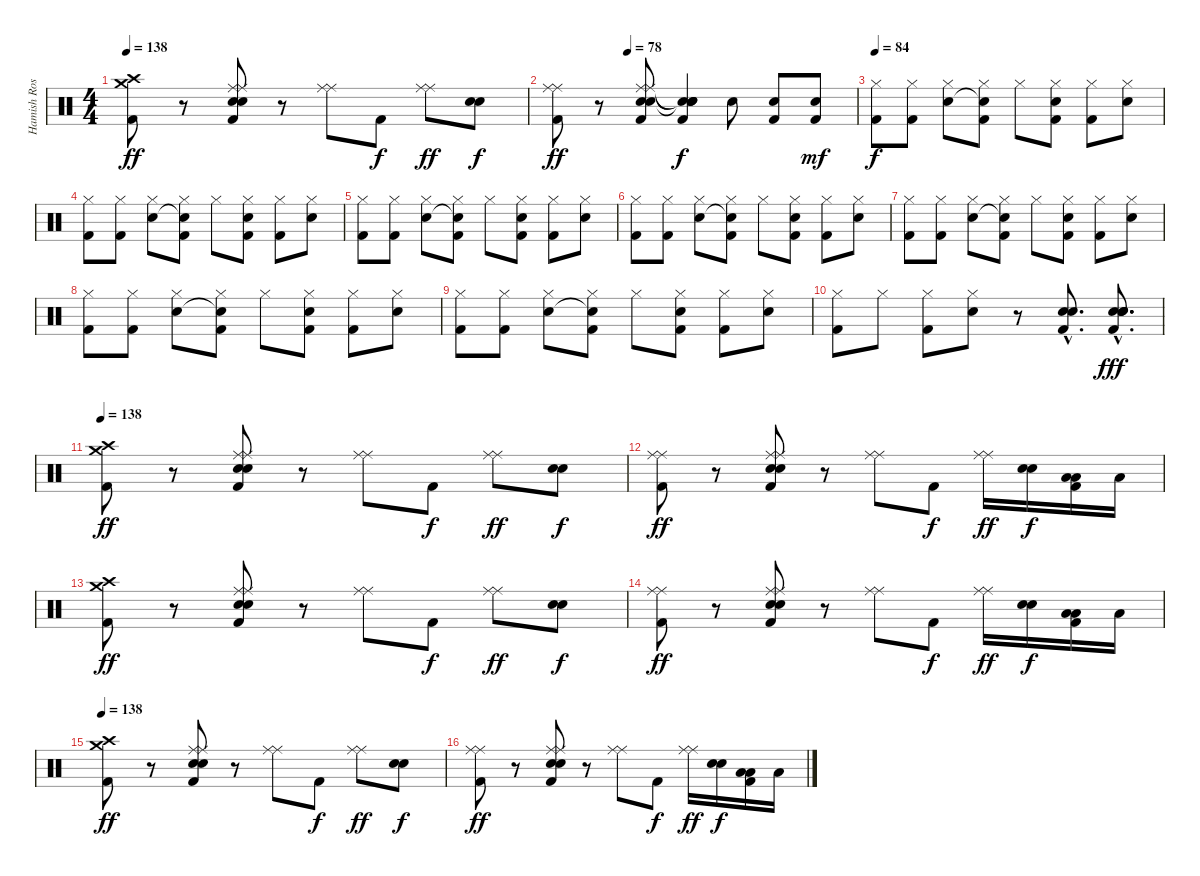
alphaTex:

\track ("Hamish Rosser" "Hamish Ros") {instrument percussion}
\staff {score}
\articulation defaults
\ts (4 4)
\tempo 138
\clef neutral
\ks c
("Crash high (hit)" "Crash medium (hit)" "Kick (hit) 2").8{dy ff} r.8 ("Ride (middle)" "Ride (middle)" "Snare (hit) 2" "Snare (hit) 2" "Kick (hit) 2").8 r.8 ("Ride (middle)" "Ride (middle)").8 "Kick (hit) 2".8{dy f} ("Ride (middle)" "Ride (middle)").8{dy ff} ("Snare (hit) 2" "Snare (hit) 2").8{dy f} |
\tempo (78 0.25)
("Ride (middle)" "Ride (middle)" "Kick (hit) 2").8{dy ff} r.8 ("Ride (middle)" "Ride (middle)" "Snare (hit) 2" "Snare (hit) 2" "Kick (hit) 2").8 ("Snare (hit)"{t} "Snare (hit)"{t} "Snare (hit) 2" "Snare (hit)"{t} "Kick (hit) 2").4{dy f} "Snare (hit) 2".8 ("Snare (hit) 2" "Kick (hit) 2").8 ("Snare (hit) 2" "Kick (hit) 2").8{dy mf} |
\tempo 84
("Hi-Hat (closed)" "Kick (hit) 2").8{dy f} ("Hi-Hat (closed)" "Kick (hit) 2").8 ("Hi-Hat (closed)" "Snare (hit) 2").8 ("Hi-Hat (closed)" "Snare (hit)"{t} "Kick (hit) 2").8 "Hi-Hat (closed)".8 ("Hi-Hat (closed)" "Snare (hit) 2" "Kick (hit) 2").8 ("Hi-Hat (closed)" "Kick (hit) 2").8 ("Hi-Hat (closed)" "Snare (hit) 2").8 |
("Hi-Hat (closed)" "Kick (hit) 2").8 ("Hi-Hat (closed)" "Kick (hit) 2").8 ("Hi-Hat (closed)" "Snare (hit) 2").8 ("Hi-Hat (closed)" "Snare (hit)"{t} "Kick (hit) 2").8 "Hi-Hat (closed)".8 ("Hi-Hat (closed)" "Snare (hit) 2" "Kick (hit) 2").8 ("Hi-Hat (closed)" "Kick (hit) 2").8 ("Hi-Hat (closed)" "Snare (hit) 2").8 |
("Hi-Hat (closed)" "Kick (hit) 2").8 ("Hi-Hat (closed)" "Kick (hit) 2").8 ("Hi-Hat (closed)" "Snare (hit) 2").8 ("Hi-Hat (closed)" "Snare (hit)"{t} "Kick (hit) 2").8 "Hi-Hat (closed)".8 ("Hi-Hat (closed)" "Snare (hit) 2" "Kick (hit) 2").8 ("Hi-Hat (closed)" "Kick (hit) 2").8 ("Hi-Hat (closed)" "Snare (hit) 2").8 |
("Hi-Hat (closed)" "Kick (hit) 2").8 ("Hi-Hat (closed)" "Kick (hit) 2").8 ("Hi-Hat (closed)" "Snare (hit) 2").8 ("Hi-Hat (closed)" "Snare (hit)"{t} "Kick (hit) 2").8 "Hi-Hat (closed)".8 ("Hi-Hat (closed)" "Snare (hit) 2" "Kick (hit) 2").8 ("Hi-Hat (closed)" "Kick (hit) 2").8 ("Hi-Hat (closed)" "Snare (hit) 2").8 |
("Hi-Hat (closed)" "Kick (hit) 2").8 ("Hi-Hat (closed)" "Kick (hit) 2").8 ("Hi-Hat (closed)" "Snare (hit) 2").8 ("Hi-Hat (closed)" "Snare (hit)"{t} "Kick (hit) 2").8 "Hi-Hat (closed)".8 ("Hi-Hat (closed)" "Snare (hit) 2" "Kick (hit) 2").8 ("Hi-Hat (closed)" "Kick (hit) 2").8 ("Hi-Hat (closed)" "Snare (hit) 2").8 |
("Hi-Hat (closed)" "Kick (hit) 2").8 ("Hi-Hat (closed)" "Kick (hit) 2").8 ("Hi-Hat (closed)" "Snare (hit) 2").8 ("Hi-Hat (closed)" "Snare (hit)"{t} "Kick (hit) 2").8 "Hi-Hat (closed)".8 ("Hi-Hat (closed)" "Snare (hit) 2" "Kick (hit) 2").8 ("Hi-Hat (closed)" "Kick (hit) 2").8 ("Hi-Hat (closed)" "Snare (hit) 2").8 |
("Hi-Hat (closed)" "Kick (hit) 2").8 ("Hi-Hat (closed)" "Kick (hit) 2").8 ("Hi-Hat (closed)" "Snare (hit) 2").8 ("Hi-Hat (closed)" "Snare (hit)"{t} "Kick (hit) 2").8 "Hi-Hat (closed)".8 ("Hi-Hat (closed)" "Snare (hit) 2" "Kick (hit) 2").8 ("Hi-Hat (closed)" "Kick (hit) 2").8 ("Hi-Hat (closed)" "Snare (hit) 2").8 |
("Hi-Hat (closed)" "Kick (hit) 2").8 "Hi-Hat (closed)".8 ("Hi-Hat (closed)" "Kick (hit) 2").8 ("Hi-Hat (closed)" "Snare (hit) 2").8 r.8 ("Snare (hit) 2"{hac} "Snare (hit) 2"{hac} "Kick (hit) 2"{hac}).8{d} ("Snare (hit) 2"{hac} "Snare (hit) 2"{hac} "Snare (hit) 2"{hac} "Snare (hit) 2"{hac} "Kick (hit) 2"{hac}).8{d dy fff} |
\tempo 138
("Crash high (hit)" "Crash medium (hit)" "Kick (hit) 2").8{dy ff} r.8 ("Ride (middle)" "Ride (middle)" "Snare (hit) 2" "Snare (hit) 2" "Kick (hit) 2").8 r.8 ("Ride (middle)" "Ride (middle)").8 "Kick (hit) 2".8{dy f} ("Ride (middle)" "Ride (middle)").8{dy ff} ("Snare (hit) 2" "Snare (hit) 2").8{dy f} |
("Ride (middle)" "Ride (middle)" "Kick (hit) 2").8{dy ff} r.8 ("Ride (middle)" "Ride (middle)" "Snare (hit) 2" "Snare (hit) 2" "Kick (hit) 2").8 r.8 ("Ride (middle)" "Ride (middle)").8 "Kick (hit) 2".8{dy f} ("Ride (middle)" "Ride (middle)").16{dy ff} ("Snare (hit) 2" "Snare (hit) 2").16{dy f} ("Low Tom (hit)" "Low Tom (hit)" "Kick (hit) 2").16 "Low Tom (hit)".16 |
("Crash high (hit)" "Crash medium (hit)" "Kick (hit) 2").8{dy ff} r.8 ("Ride (middle)" "Ride (middle)" "Snare (hit) 2" "Snare (hit) 2" "Kick (hit) 2").8 r.8 ("Ride (middle)" "Ride (middle)").8 "Kick (hit) 2".8{dy f} ("Ride (middle)" "Ride (middle)").8{dy ff} ("Snare (hit) 2" "Snare (hit) 2").8{dy f} |
("Ride (middle)" "Ride (middle)" "Kick (hit) 2").8{dy ff} r.8 ("Ride (middle)" "Ride (middle)" "Snare (hit) 2" "Snare (hit) 2" "Kick (hit) 2").8 r.8 ("Ride (middle)" "Ride (middle)").8 "Kick (hit) 2".8{dy f} ("Ride (middle)" "Ride (middle)").16{dy ff} ("Snare (hit) 2" "Snare (hit) 2").16{dy f} ("Low Tom (hit)" "Low Tom (hit)" "Kick (hit) 2").16 "Low Tom (hit)".16 |
\tempo 138
("Crash high (hit)" "Crash medium (hit)" "Kick (hit) 2").8{dy ff} r.8 ("Ride (middle)" "Ride (middle)" "Snare (hit) 2" "Snare (hit) 2" "Kick (hit) 2").8 r.8 ("Ride (middle)" "Ride (middle)").8 "Kick (hit) 2".8{dy f} ("Ride (middle)" "Ride (middle)").8{dy ff} ("Snare (hit) 2" "Snare (hit) 2").8{dy f} |
("Ride (middle)" "Ride (middle)" "Kick (hit) 2").8{dy ff} r.8 ("Ride (middle)" "Ride (middle)" "Snare (hit) 2" "Snare (hit) 2" "Kick (hit) 2").8 r.8 ("Ride (middle)" "Ride (middle)").8 "Kick (hit) 2".8{dy f} ("Ride (middle)" "Ride (middle)").16{dy ff} ("Snare (hit) 2" "Snare (hit) 2").16{dy f} ("Low Tom (hit)" "Low Tom (hit)" "Kick (hit) 2").16 "Low Tom (hit)".16
